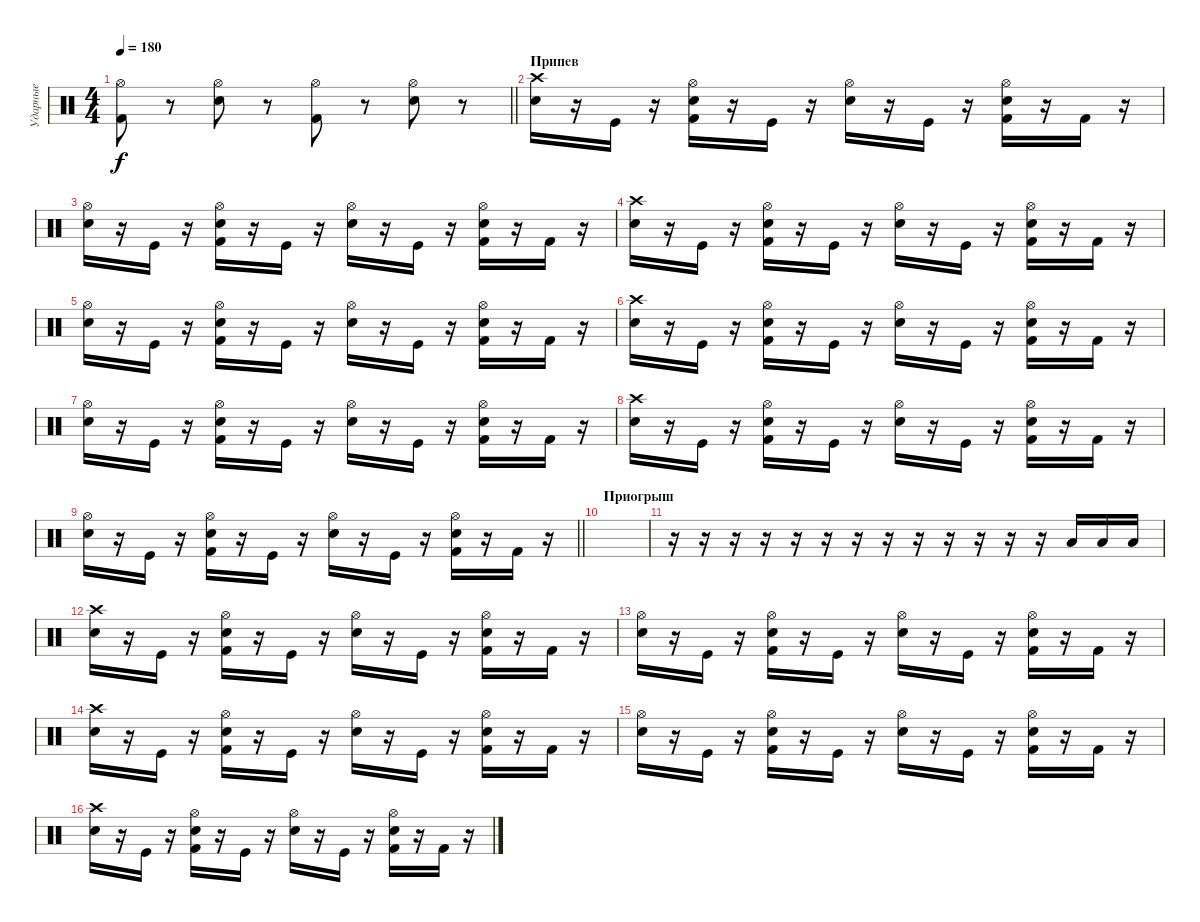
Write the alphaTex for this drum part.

\track ("Ударные" "Ударные") {instrument percussion}
\staff {score}
\articulation defaults
\ts (4 4)
\tempo 180
\clef neutral
\barLineRight lightlight
\ks c
("Hi-Hat (open)" "Kick (hit) 2").8{dy f} r.8 ("Hi-Hat (open)" "Electric Snare (hit)").8 r.8 ("Hi-Hat (open)" "Kick (hit) 2").8 r.8 ("Hi-Hat (open)" "Electric Snare (hit)").8 r.8 |
\section ("" "Припев")
("Electric Snare (hit)" "Crash high (hit)").16 r.16 "Kick (hit)".16 r.16 ("Kick (hit) 2" "Hi-Hat (open)" "Electric Snare (hit)").16 r.16 "Kick (hit)".16 r.16 ("Electric Snare (hit)" "Hi-Hat (open)").16 r.16 "Kick (hit)".16 r.16 ("Kick (hit) 2" "Hi-Hat (open)" "Electric Snare (hit)").16 r.16 "Kick (hit) 2".16 r.16 |
("Electric Snare (hit)" "Hi-Hat (open)").16 r.16 "Kick (hit)".16 r.16 ("Kick (hit) 2" "Hi-Hat (open)" "Electric Snare (hit)").16 r.16 "Kick (hit)".16 r.16 ("Electric Snare (hit)" "Hi-Hat (open)").16 r.16 "Kick (hit)".16 r.16 ("Kick (hit) 2" "Hi-Hat (open)" "Electric Snare (hit)").16 r.16 "Kick (hit) 2".16 r.16 |
("Electric Snare (hit)" "Crash high (hit)").16 r.16 "Kick (hit)".16 r.16 ("Kick (hit) 2" "Hi-Hat (open)" "Electric Snare (hit)").16 r.16 "Kick (hit)".16 r.16 ("Electric Snare (hit)" "Hi-Hat (open)").16 r.16 "Kick (hit)".16 r.16 ("Kick (hit) 2" "Hi-Hat (open)" "Electric Snare (hit)").16 r.16 "Kick (hit) 2".16 r.16 |
("Electric Snare (hit)" "Hi-Hat (open)").16 r.16 "Kick (hit)".16 r.16 ("Kick (hit) 2" "Hi-Hat (open)" "Electric Snare (hit)").16 r.16 "Kick (hit)".16 r.16 ("Electric Snare (hit)" "Hi-Hat (open)").16 r.16 "Kick (hit)".16 r.16 ("Kick (hit) 2" "Hi-Hat (open)" "Electric Snare (hit)").16 r.16 "Kick (hit) 2".16 r.16 |
("Electric Snare (hit)" "Crash high (hit)").16 r.16 "Kick (hit)".16 r.16 ("Kick (hit) 2" "Hi-Hat (open)" "Electric Snare (hit)").16 r.16 "Kick (hit)".16 r.16 ("Electric Snare (hit)" "Hi-Hat (open)").16 r.16 "Kick (hit)".16 r.16 ("Kick (hit) 2" "Hi-Hat (open)" "Electric Snare (hit)").16 r.16 "Kick (hit) 2".16 r.16 |
("Electric Snare (hit)" "Hi-Hat (open)").16 r.16 "Kick (hit)".16 r.16 ("Kick (hit) 2" "Hi-Hat (open)" "Electric Snare (hit)").16 r.16 "Kick (hit)".16 r.16 ("Electric Snare (hit)" "Hi-Hat (open)").16 r.16 "Kick (hit)".16 r.16 ("Kick (hit) 2" "Hi-Hat (open)" "Electric Snare (hit)").16 r.16 "Kick (hit) 2".16 r.16 |
("Electric Snare (hit)" "Crash high (hit)").16 r.16 "Kick (hit)".16 r.16 ("Kick (hit) 2" "Hi-Hat (open)" "Electric Snare (hit)").16 r.16 "Kick (hit)".16 r.16 ("Electric Snare (hit)" "Hi-Hat (open)").16 r.16 "Kick (hit)".16 r.16 ("Kick (hit) 2" "Hi-Hat (open)" "Electric Snare (hit)").16 r.16 "Kick (hit) 2".16 r.16 |
\barLineRight lightlight
("Electric Snare (hit)" "Hi-Hat (open)").16 r.16 "Kick (hit)".16 r.16 ("Kick (hit) 2" "Hi-Hat (open)" "Electric Snare (hit)").16 r.16 "Kick (hit)".16 r.16 ("Electric Snare (hit)" "Hi-Hat (open)").16 r.16 "Kick (hit)".16 r.16 ("Kick (hit) 2" "Hi-Hat (open)" "Electric Snare (hit)").16 r.16 "Kick (hit) 2".16 r.16 |
\section ("" "Приогрыш")
|
r.16 r.16 r.16 r.16 r.16 r.16 r.16 r.16 r.16 r.16 r.16 r.16 r.16 "Low Tom (hit)".16 "Low Tom (hit)".16 "Low Tom (hit)".16 |
("Electric Snare (hit)" "Crash high (hit)").16 r.16 "Kick (hit)".16 r.16 ("Kick (hit) 2" "Hi-Hat (open)" "Electric Snare (hit)").16 r.16 "Kick (hit)".16 r.16 ("Electric Snare (hit)" "Hi-Hat (open)").16 r.16 "Kick (hit)".16 r.16 ("Kick (hit) 2" "Hi-Hat (open)" "Electric Snare (hit)").16 r.16 "Kick (hit) 2".16 r.16 |
("Electric Snare (hit)" "Hi-Hat (open)").16 r.16 "Kick (hit)".16 r.16 ("Kick (hit) 2" "Hi-Hat (open)" "Electric Snare (hit)").16 r.16 "Kick (hit)".16 r.16 ("Electric Snare (hit)" "Hi-Hat (open)").16 r.16 "Kick (hit)".16 r.16 ("Kick (hit) 2" "Hi-Hat (open)" "Electric Snare (hit)").16 r.16 "Kick (hit) 2".16 r.16 |
("Electric Snare (hit)" "Crash high (hit)").16 r.16 "Kick (hit)".16 r.16 ("Kick (hit) 2" "Hi-Hat (open)" "Electric Snare (hit)").16 r.16 "Kick (hit)".16 r.16 ("Electric Snare (hit)" "Hi-Hat (open)").16 r.16 "Kick (hit)".16 r.16 ("Kick (hit) 2" "Hi-Hat (open)" "Electric Snare (hit)").16 r.16 "Kick (hit) 2".16 r.16 |
("Electric Snare (hit)" "Hi-Hat (open)").16 r.16 "Kick (hit)".16 r.16 ("Kick (hit) 2" "Hi-Hat (open)" "Electric Snare (hit)").16 r.16 "Kick (hit)".16 r.16 ("Electric Snare (hit)" "Hi-Hat (open)").16 r.16 "Kick (hit)".16 r.16 ("Kick (hit) 2" "Hi-Hat (open)" "Electric Snare (hit)").16 r.16 "Kick (hit) 2".16 r.16 |
("Electric Snare (hit)" "Crash high (hit)").16 r.16 "Kick (hit)".16 r.16 ("Kick (hit) 2" "Hi-Hat (open)" "Electric Snare (hit)").16 r.16 "Kick (hit)".16 r.16 ("Electric Snare (hit)" "Hi-Hat (open)").16 r.16 "Kick (hit)".16 r.16 ("Kick (hit) 2" "Hi-Hat (open)" "Electric Snare (hit)").16 r.16 "Kick (hit) 2".16 r.16
